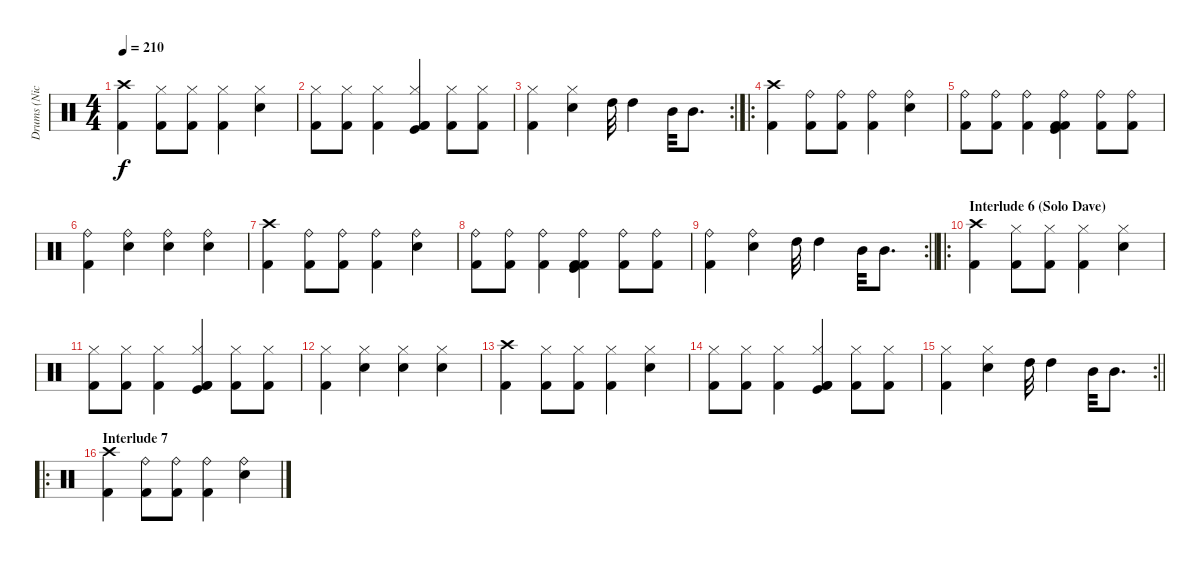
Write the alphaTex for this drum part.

\track ("Drums (Nicko McBrain)" "Drums (Nic") {instrument percussion}
\staff {score}
\articulation defaults
\ts (4 4)
\tempo 210
\clef neutral
\ks c
("Crash high (hit)" "Kick (hit) 2").4{dy f} ("Hi-Hat (closed)" "Kick (hit) 2").8 ("Hi-Hat (closed)" "Kick (hit) 2").8 ("Hi-Hat (closed)" "Kick (hit) 2").4 ("Hi-Hat (closed)" "Electric Snare (hit)").4 |
("Hi-Hat (closed)" "Kick (hit) 2").8 ("Hi-Hat (closed)" "Kick (hit) 2").8 ("Hi-Hat (closed)" "Kick (hit) 2").4 ("Hi-Hat (closed)" "Kick (hit) 2" "Kick (hit)" "Kick (hit) 2").4 ("Hi-Hat (closed)" "Kick (hit) 2").8 ("Hi-Hat (closed)" "Kick (hit) 2").8 |
\rc 2
("Hi-Hat (closed)" "Kick (hit) 2").4 ("Hi-Hat (closed)" "Electric Snare (hit)").4 "High Tom (hit)".32 "High Tom (hit)".4 "Mid Tom (hit)".32 "Mid Tom (hit)".8{d} |
\ro
("Crash high (hit)" "Kick (hit) 2").4 ("Ride (bell)" "Kick (hit) 2").8 ("Ride (bell)" "Kick (hit) 2").8 ("Ride (bell)" "Kick (hit) 2").4 ("Ride (bell)" "Electric Snare (hit)").4 |
("Ride (bell)" "Kick (hit) 2").8 ("Ride (bell)" "Kick (hit) 2").8 ("Ride (bell)" "Kick (hit) 2").4 ("Ride (bell)" "Kick (hit) 2" "Kick (hit)" "Kick (hit) 2").4 ("Ride (bell)" "Kick (hit) 2").8 ("Ride (bell)" "Kick (hit) 2").8 |
("Ride (bell)" "Kick (hit) 2").4 ("Ride (bell)" "Electric Snare (hit)").4 ("Ride (bell)" "Electric Snare (hit)").4 ("Ride (bell)" "Electric Snare (hit)").4 |
("Crash high (hit)" "Kick (hit) 2").4 ("Ride (bell)" "Kick (hit) 2").8 ("Ride (bell)" "Kick (hit) 2").8 ("Ride (bell)" "Kick (hit) 2").4 ("Ride (bell)" "Electric Snare (hit)").4 |
("Ride (bell)" "Kick (hit) 2").8 ("Ride (bell)" "Kick (hit) 2").8 ("Ride (bell)" "Kick (hit) 2").4 ("Ride (bell)" "Kick (hit) 2" "Kick (hit)" "Kick (hit) 2").4 ("Ride (bell)" "Kick (hit) 2").8 ("Ride (bell)" "Kick (hit) 2").8 |
\rc 2
\barLineRight lightlight
("Ride (bell)" "Kick (hit) 2").4 ("Ride (bell)" "Electric Snare (hit)").4 "High Tom (hit)".32 "High Tom (hit)".4 "Mid Tom (hit)".32 "Mid Tom (hit)".8{d} |
\ro
\section ("" "Interlude 6 (Solo Dave)")
("Crash high (hit)" "Kick (hit) 2").4 ("Hi-Hat (closed)" "Kick (hit) 2").8 ("Hi-Hat (closed)" "Kick (hit) 2").8 ("Hi-Hat (closed)" "Kick (hit) 2").4 ("Hi-Hat (closed)" "Electric Snare (hit)").4 |
("Hi-Hat (closed)" "Kick (hit) 2").8 ("Hi-Hat (closed)" "Kick (hit) 2").8 ("Hi-Hat (closed)" "Kick (hit) 2").4 ("Hi-Hat (closed)" "Kick (hit) 2" "Kick (hit)" "Kick (hit) 2").4 ("Hi-Hat (closed)" "Kick (hit) 2").8 ("Hi-Hat (closed)" "Kick (hit) 2").8 |
("Hi-Hat (closed)" "Kick (hit) 2").4 ("Hi-Hat (closed)" "Electric Snare (hit)").4 ("Hi-Hat (closed)" "Electric Snare (hit)").4 ("Hi-Hat (closed)" "Electric Snare (hit)").4 |
("Crash high (hit)" "Kick (hit) 2").4 ("Hi-Hat (closed)" "Kick (hit) 2").8 ("Hi-Hat (closed)" "Kick (hit) 2").8 ("Hi-Hat (closed)" "Kick (hit) 2").4 ("Hi-Hat (closed)" "Electric Snare (hit)").4 |
("Hi-Hat (closed)" "Kick (hit) 2").8 ("Hi-Hat (closed)" "Kick (hit) 2").8 ("Hi-Hat (closed)" "Kick (hit) 2").4 ("Hi-Hat (closed)" "Kick (hit) 2" "Kick (hit)" "Kick (hit) 2").4 ("Hi-Hat (closed)" "Kick (hit) 2").8 ("Hi-Hat (closed)" "Kick (hit) 2").8 |
\rc 2
\barLineRight lightlight
("Hi-Hat (closed)" "Kick (hit) 2").4 ("Hi-Hat (closed)" "Electric Snare (hit)").4 "High Tom (hit)".32 "High Tom (hit)".4 "Mid Tom (hit)".32 "Mid Tom (hit)".8{d} |
\ro
\section ("" "Interlude 7")
("Crash high (hit)" "Kick (hit) 2").4 ("Ride (bell)" "Kick (hit) 2").8 ("Ride (bell)" "Kick (hit) 2").8 ("Ride (bell)" "Kick (hit) 2").4 ("Ride (bell)" "Electric Snare (hit)").4
